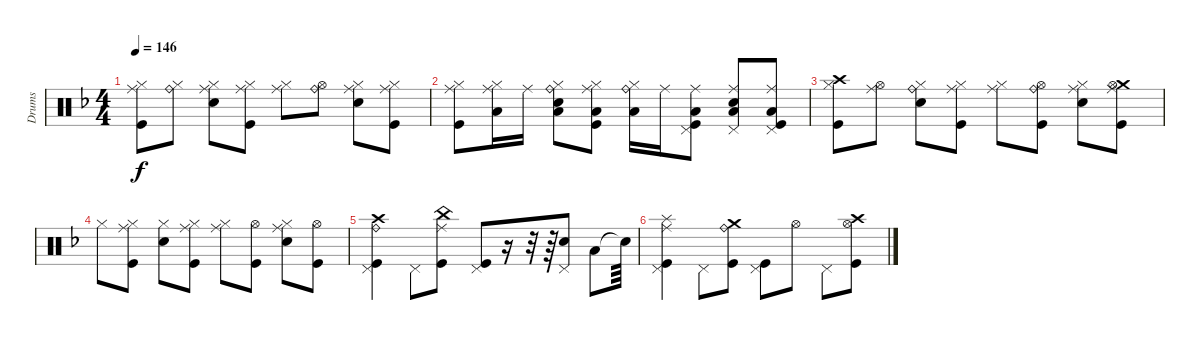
\track ("Drums" "Drums") {instrument percussion}
\staff {score}
\articulation defaults
\ts (4 4)
\tempo 146
\clef neutral
\ks f
("Kick (hit)" "Hi-Hat (closed)" "Ride (middle)").8{dy f} ("Hi-Hat (closed)" "Ride (bell)").8 ("Ride (middle)" "Snare (hit) 2" "Hi-Hat (closed)").8 ("Hi-Hat (closed)" "Ride (middle)" "Kick (hit)").8 ("Hi-Hat (closed)" "Ride (middle)").8 ("Hi-Hat (open)" "Ride (bell)").8 ("Hi-Hat (closed)" "Ride (middle)" "Snare (hit) 2").8 ("Kick (hit)" "Hi-Hat (closed)" "Ride (middle)").8 |
("Kick (hit)" "Hi-Hat (closed)" "Ride (middle)").8 ("Low Floor Tom (hit)" "Hi-Hat (closed)" "Ride (middle)").16 "Ride (middle)".16 ("Snare (hit) 2" "Low Floor Tom (hit)" "Hi-Hat (closed)" "Ride (bell)").8 ("Kick (hit)" "Low Floor Tom (hit)" "Hi-Hat (closed)" "Ride (middle)").8 ("Low Floor Tom (hit)" "Hi-Hat (closed)" "Ride (bell)").16 "Ride (middle)".16 ("Pedal Hi-Hat (hit)" "Ride (middle)" "Kick (hit)" "Low Floor Tom (hit)").8 ("Snare (hit) 2" "Low Floor Tom (hit)" "Pedal Hi-Hat (hit)" "Ride (middle)").8 ("Pedal Hi-Hat (hit)" "Low Floor Tom (hit)" "Ride (middle)" "Kick (hit)").8 |
("Crash high (hit)" "Kick (hit)" "Hi-Hat (closed)").8 ("Hi-Hat (open)" "Ride (middle)").8 ("Snare (hit) 2" "Hi-Hat (closed)" "Ride (bell)").8 ("Hi-Hat (closed)" "Ride (middle)" "Kick (hit)").8 ("Hi-Hat (closed)" "Ride (middle)").8 ("Kick (hit)" "Hi-Hat (open)" "Ride (bell)").8 ("Snare (hit) 2" "Hi-Hat (closed)" "Ride (middle)").8 ("Crash medium (hit)" "Hi-Hat (open)" "Kick (hit)" "Ride (middle)").8 |
"Hi-Hat (closed)".8 ("Kick (hit)" "Hi-Hat (closed)" "Ride (middle)").8 ("Snare (hit) 2" "Hi-Hat (closed)").8 ("Kick (hit)" "Hi-Hat (closed)" "Ride (middle)").8 ("Hi-Hat (closed)" "Ride (middle)").8 ("Kick (hit)" "Hi-Hat (open)").8 ("Snare (hit) 2" "Hi-Hat (closed)" "Ride (middle)").8 ("Kick (hit)" "Hi-Hat (open)").8 |
("Kick (hit)" "Pedal Hi-Hat (hit)" "Crash high (hit)" "Ride (bell)").4 "Pedal Hi-Hat (hit)".8 ("Kick (hit)" "Ride (middle)" "China (hit)").8 ("Kick (hit)" "Pedal Hi-Hat (hit)").8 r.16 r.32 r.64 ("Snare (hit) 2" "Pedal Hi-Hat (hit)").8 "Low Floor Tom (hit)".8 "Snare (hit)"{t}.64 |
("Splash (hit)" "Kick (hit)" "Ride (middle)" "Pedal Hi-Hat (hit)").4 "Pedal Hi-Hat (hit)".8 ("Ride (bell)" "Crash medium (hit)" "Kick (hit)").8 ("Kick (hit)" "Pedal Hi-Hat (hit)").8 "Hi-Hat (open)".8 "Pedal Hi-Hat (hit)".8 ("Kick (hit)" "Hi-Hat (open)" "Crash high (hit)").8
